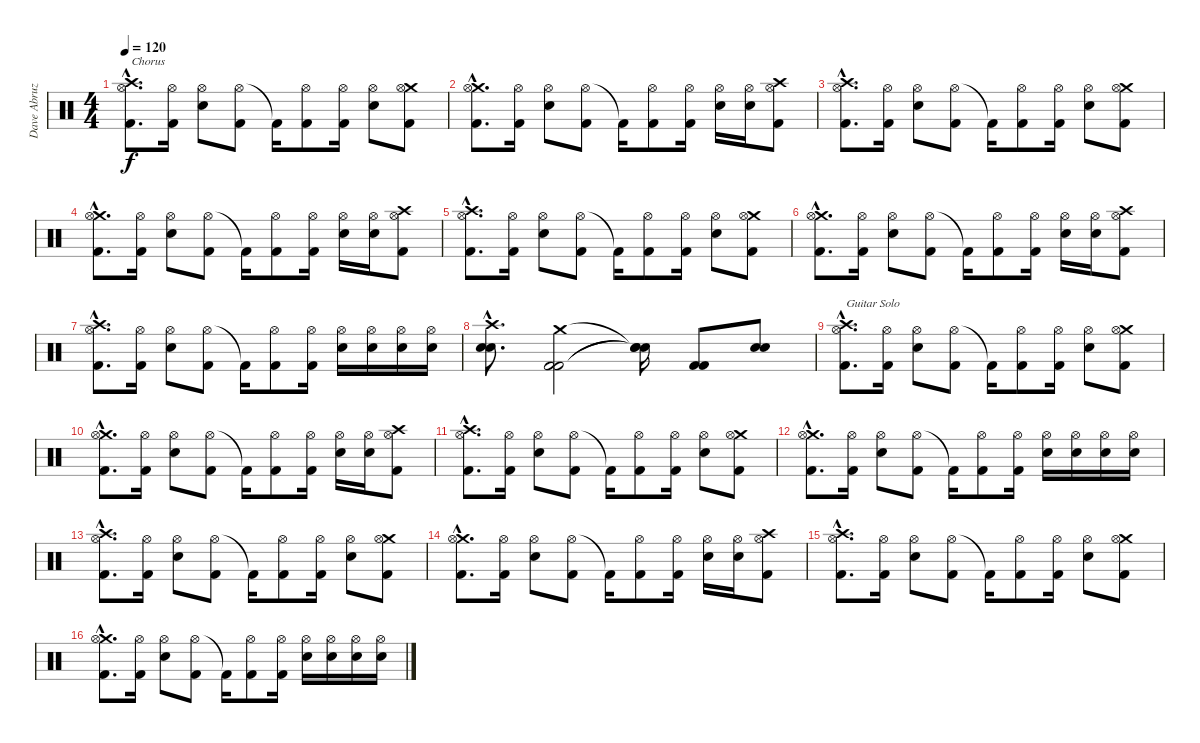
\track ("Dave Abruzzesse" "Dave Abruz") {instrument percussion}
\staff {score}
\articulation defaults
\ts (4 4)
\tempo 120
\clef neutral
\ks c
("Crash high (hit)"{hac} "Hi-Hat (open)"{hac} "Kick (hit) 2"{hac}).8{d txt "Chorus" dy f} ("Hi-Hat (open)" "Kick (hit) 2").16 ("Hi-Hat (open)" "Snare (hit) 2").8 ("Hi-Hat (open)" "Kick (hit) 2").8 "Kick (hit) 2"{t}.16 ("Hi-Hat (open)" "Kick (hit) 2").8 ("Hi-Hat (open)" "Kick (hit) 2").16 ("Hi-Hat (open)" "Snare (hit) 2").8 ("Crash medium (hit)" "Hi-Hat (open)" "Kick (hit) 2").8 |
("Crash medium (hit)"{hac} "Hi-Hat (open)"{hac} "Kick (hit) 2"{hac}).8{d} ("Hi-Hat (open)" "Kick (hit) 2").16 ("Hi-Hat (open)" "Snare (hit) 2").8 ("Hi-Hat (open)" "Kick (hit) 2").8 "Kick (hit) 2"{t}.16 ("Hi-Hat (open)" "Kick (hit) 2").8 ("Hi-Hat (open)" "Kick (hit) 2").16 ("Hi-Hat (open)" "Snare (hit) 2").16 ("Hi-Hat (open)" "Snare (hit) 2").16 ("Crash high (hit)" "Hi-Hat (open)" "Kick (hit) 2").8 |
("Crash high (hit)"{hac} "Hi-Hat (open)"{hac} "Kick (hit) 2"{hac}).8{d} ("Hi-Hat (open)" "Kick (hit) 2").16 ("Hi-Hat (open)" "Snare (hit) 2").8 ("Hi-Hat (open)" "Kick (hit) 2").8 "Kick (hit) 2"{t}.16 ("Hi-Hat (open)" "Kick (hit) 2").8 ("Hi-Hat (open)" "Kick (hit) 2").16 ("Hi-Hat (open)" "Snare (hit) 2").8 ("Crash medium (hit)" "Hi-Hat (open)" "Kick (hit) 2").8 |
("Crash medium (hit)"{hac} "Hi-Hat (open)"{hac} "Kick (hit) 2"{hac}).8{d} ("Hi-Hat (open)" "Kick (hit) 2").16 ("Hi-Hat (open)" "Snare (hit) 2").8 ("Hi-Hat (open)" "Kick (hit) 2").8 "Kick (hit) 2"{t}.16 ("Hi-Hat (open)" "Kick (hit) 2").8 ("Hi-Hat (open)" "Kick (hit) 2").16 ("Hi-Hat (open)" "Snare (hit) 2").16 ("Hi-Hat (open)" "Snare (hit) 2").16 ("Crash high (hit)" "Hi-Hat (open)" "Kick (hit) 2").8 |
("Crash high (hit)"{hac} "Hi-Hat (open)"{hac} "Kick (hit) 2"{hac}).8{d} ("Hi-Hat (open)" "Kick (hit) 2").16 ("Hi-Hat (open)" "Snare (hit) 2").8 ("Hi-Hat (open)" "Kick (hit) 2").8 "Kick (hit) 2"{t}.16 ("Hi-Hat (open)" "Kick (hit) 2").8 ("Hi-Hat (open)" "Kick (hit) 2").16 ("Hi-Hat (open)" "Snare (hit) 2").8 ("Crash medium (hit)" "Hi-Hat (open)" "Kick (hit) 2").8 |
("Crash medium (hit)"{hac} "Hi-Hat (open)"{hac} "Kick (hit) 2"{hac}).8{d} ("Hi-Hat (open)" "Kick (hit) 2").16 ("Hi-Hat (open)" "Snare (hit) 2").8 ("Hi-Hat (open)" "Kick (hit) 2").8 "Kick (hit) 2"{t}.16 ("Hi-Hat (open)" "Kick (hit) 2").8 ("Hi-Hat (open)" "Kick (hit) 2").16 ("Hi-Hat (open)" "Snare (hit) 2").16 ("Hi-Hat (open)" "Snare (hit) 2").16 ("Crash high (hit)" "Hi-Hat (open)" "Kick (hit) 2").8 |
("Crash high (hit)"{hac} "Hi-Hat (open)"{hac} "Kick (hit) 2"{hac}).8{d} ("Hi-Hat (open)" "Kick (hit) 2").16 ("Hi-Hat (open)" "Snare (hit) 2").8 ("Hi-Hat (open)" "Kick (hit) 2").8 "Kick (hit) 2"{t}.16 ("Hi-Hat (open)" "Kick (hit) 2").8 ("Hi-Hat (open)" "Kick (hit) 2").16 ("Hi-Hat (open)" "Snare (hit) 2").16 ("Hi-Hat (open)" "Snare (hit) 2").16 ("Hi-Hat (open)" "Snare (hit) 2").16 ("Hi-Hat (open)" "Snare (hit) 2").16 |
("Crash high (hit)"{hac} "Snare (hit) 2"{hac} "Snare (hit) 2"{hac}).8{d} ("Crash medium (hit)" "Kick (hit) 2" "Kick (hit) 2").2 ("Snare (hit)"{t} "Snare (hit)"{t} "Snare (hit)"{t}).16 ("Kick (hit) 2" "Kick (hit) 2").8 ("Snare (hit) 2" "Snare (hit) 2").8 |
("Crash high (hit)"{hac} "Hi-Hat (open)"{hac} "Kick (hit) 2"{hac}).8{d txt "Guitar Solo"} ("Hi-Hat (open)" "Kick (hit) 2").16 ("Hi-Hat (open)" "Snare (hit) 2").8 ("Hi-Hat (open)" "Kick (hit) 2").8 "Kick (hit) 2"{t}.16 ("Hi-Hat (open)" "Kick (hit) 2").8 ("Hi-Hat (open)" "Kick (hit) 2").16 ("Hi-Hat (open)" "Snare (hit) 2").8 ("Crash medium (hit)" "Hi-Hat (open)" "Kick (hit) 2").8 |
("Crash medium (hit)"{hac} "Hi-Hat (open)"{hac} "Kick (hit) 2"{hac}).8{d} ("Hi-Hat (open)" "Kick (hit) 2").16 ("Hi-Hat (open)" "Snare (hit) 2").8 ("Hi-Hat (open)" "Kick (hit) 2").8 "Kick (hit) 2"{t}.16 ("Hi-Hat (open)" "Kick (hit) 2").8 ("Hi-Hat (open)" "Kick (hit) 2").16 ("Hi-Hat (open)" "Snare (hit) 2").16 ("Hi-Hat (open)" "Snare (hit) 2").16 ("Crash high (hit)" "Hi-Hat (open)" "Kick (hit) 2").8 |
("Crash high (hit)"{hac} "Hi-Hat (open)"{hac} "Kick (hit) 2"{hac}).8{d} ("Hi-Hat (open)" "Kick (hit) 2").16 ("Hi-Hat (open)" "Snare (hit) 2").8 ("Hi-Hat (open)" "Kick (hit) 2").8 "Kick (hit) 2"{t}.16 ("Hi-Hat (open)" "Kick (hit) 2").8 ("Hi-Hat (open)" "Kick (hit) 2").16 ("Hi-Hat (open)" "Snare (hit) 2").8 ("Crash medium (hit)" "Hi-Hat (open)" "Kick (hit) 2").8 |
("Crash medium (hit)"{hac} "Hi-Hat (open)"{hac} "Kick (hit) 2"{hac}).8{d} ("Hi-Hat (open)" "Kick (hit) 2").16 ("Hi-Hat (open)" "Snare (hit) 2").8 ("Hi-Hat (open)" "Kick (hit) 2").8 "Kick (hit) 2"{t}.16 ("Hi-Hat (open)" "Kick (hit) 2").8 ("Hi-Hat (open)" "Kick (hit) 2").16 ("Hi-Hat (open)" "Snare (hit) 2").16 ("Hi-Hat (open)" "Snare (hit) 2").16 ("Hi-Hat (open)" "Snare (hit) 2").16 ("Hi-Hat (open)" "Snare (hit) 2").16 |
("Crash high (hit)"{hac} "Hi-Hat (open)"{hac} "Kick (hit) 2"{hac}).8{d} ("Hi-Hat (open)" "Kick (hit) 2").16 ("Hi-Hat (open)" "Snare (hit) 2").8 ("Hi-Hat (open)" "Kick (hit) 2").8 "Kick (hit) 2"{t}.16 ("Hi-Hat (open)" "Kick (hit) 2").8 ("Hi-Hat (open)" "Kick (hit) 2").16 ("Hi-Hat (open)" "Snare (hit) 2").8 ("Crash medium (hit)" "Hi-Hat (open)" "Kick (hit) 2").8 |
("Crash medium (hit)"{hac} "Hi-Hat (open)"{hac} "Kick (hit) 2"{hac}).8{d} ("Hi-Hat (open)" "Kick (hit) 2").16 ("Hi-Hat (open)" "Snare (hit) 2").8 ("Hi-Hat (open)" "Kick (hit) 2").8 "Kick (hit) 2"{t}.16 ("Hi-Hat (open)" "Kick (hit) 2").8 ("Hi-Hat (open)" "Kick (hit) 2").16 ("Hi-Hat (open)" "Snare (hit) 2").16 ("Hi-Hat (open)" "Snare (hit) 2").16 ("Crash high (hit)" "Hi-Hat (open)" "Kick (hit) 2").8 |
("Crash high (hit)"{hac} "Hi-Hat (open)"{hac} "Kick (hit) 2"{hac}).8{d} ("Hi-Hat (open)" "Kick (hit) 2").16 ("Hi-Hat (open)" "Snare (hit) 2").8 ("Hi-Hat (open)" "Kick (hit) 2").8 "Kick (hit) 2"{t}.16 ("Hi-Hat (open)" "Kick (hit) 2").8 ("Hi-Hat (open)" "Kick (hit) 2").16 ("Hi-Hat (open)" "Snare (hit) 2").8 ("Crash medium (hit)" "Hi-Hat (open)" "Kick (hit) 2").8 |
("Crash medium (hit)"{hac} "Hi-Hat (open)"{hac} "Kick (hit) 2"{hac}).8{d} ("Hi-Hat (open)" "Kick (hit) 2").16 ("Hi-Hat (open)" "Snare (hit) 2").8 ("Hi-Hat (open)" "Kick (hit) 2").8 "Kick (hit) 2"{t}.16 ("Hi-Hat (open)" "Kick (hit) 2").8 ("Hi-Hat (open)" "Kick (hit) 2").16 ("Hi-Hat (open)" "Snare (hit) 2").16 ("Hi-Hat (open)" "Snare (hit) 2").16 ("Hi-Hat (open)" "Snare (hit) 2").16 ("Hi-Hat (open)" "Snare (hit) 2").16
